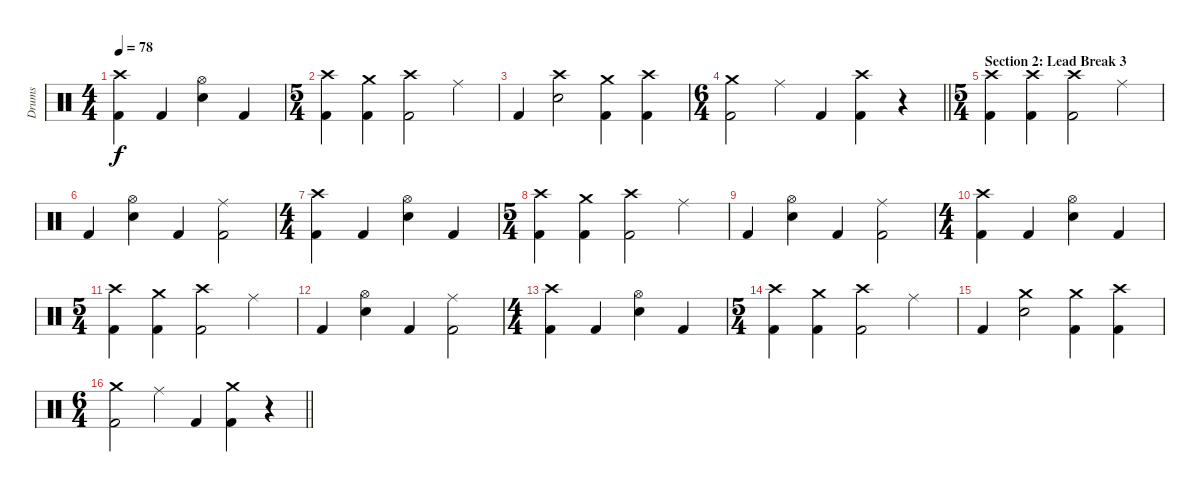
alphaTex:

\track ("Drums" "Drums") {instrument percussion}
\staff {score}
\articulation defaults
\ts (4 4)
\tempo 78
\clef neutral
\ks c
("Crash high (hit)" "Kick (hit) 2").4{dy f} "Kick (hit) 2".4 ("Hi-Hat (open)" "Electric Snare (hit)").4 "Kick (hit) 2".4 |
\ts (5 4)
("Crash high (hit)" "Kick (hit) 2").4 ("Crash medium (hit)" "Kick (hit) 2").4 ("Crash high (hit)" "Kick (hit) 2").2 "Ride (middle)".4 |
"Kick (hit) 2".4 ("Crash high (hit)" "Electric Snare (hit)").2 ("Crash medium (hit)" "Kick (hit) 2").4 ("Crash high (hit)" "Kick (hit) 2").4 |
\ts (6 4)
\barLineRight lightlight
("Crash medium (hit)" "Kick (hit) 2").2 "Ride (middle)".4 "Kick (hit) 2".4 ("Crash high (hit)" "Kick (hit) 2").4 r.4 |
\ts (5 4)
\section ("" "Section 2: Lead Break 3")
("Crash high (hit)" "Kick (hit) 2").4 ("Crash high (hit)" "Kick (hit) 2").4 ("Crash high (hit)" "Kick (hit) 2").2 "Ride (middle)".4 |
"Kick (hit) 2".4 ("Hi-Hat (open)" "Electric Snare (hit)").4 "Kick (hit) 2".4 ("Ride (middle)" "Kick (hit) 2").2 |
\ts (4 4)
("Crash high (hit)" "Kick (hit) 2").4 "Kick (hit) 2".4 ("Hi-Hat (open)" "Electric Snare (hit)").4 "Kick (hit) 2".4 |
\ts (5 4)
("Crash high (hit)" "Kick (hit) 2").4 ("Crash medium (hit)" "Kick (hit) 2").4 ("Crash high (hit)" "Kick (hit) 2").2 "Ride (middle)".4 |
"Kick (hit) 2".4 ("Hi-Hat (open)" "Electric Snare (hit)").4 "Kick (hit) 2".4 ("Ride (middle)" "Kick (hit) 2").2 |
\ts (4 4)
("Crash high (hit)" "Kick (hit) 2").4 "Kick (hit) 2".4 ("Hi-Hat (open)" "Electric Snare (hit)").4 "Kick (hit) 2".4 |
\ts (5 4)
("Crash high (hit)" "Kick (hit) 2").4 ("Crash medium (hit)" "Kick (hit) 2").4 ("Crash high (hit)" "Kick (hit) 2").2 "Ride (middle)".4 |
"Kick (hit) 2".4 ("Hi-Hat (open)" "Electric Snare (hit)").4 "Kick (hit) 2".4 ("Ride (middle)" "Kick (hit) 2").2 |
\ts (4 4)
("Crash high (hit)" "Kick (hit) 2").4 "Kick (hit) 2".4 ("Hi-Hat (open)" "Electric Snare (hit)").4 "Kick (hit) 2".4 |
\ts (5 4)
("Crash high (hit)" "Kick (hit) 2").4 ("Crash medium (hit)" "Kick (hit) 2").4 ("Crash high (hit)" "Kick (hit) 2").2 "Ride (middle)".4 |
"Kick (hit) 2".4 ("Crash medium (hit)" "Electric Snare (hit)").2 ("Crash medium (hit)" "Kick (hit) 2").4 ("Crash high (hit)" "Kick (hit) 2").4 |
\ts (6 4)
\barLineRight lightlight
("Crash medium (hit)" "Kick (hit) 2").2 "Ride (middle)".4 "Kick (hit) 2".4 ("Crash medium (hit)" "Kick (hit) 2").4 r.4
